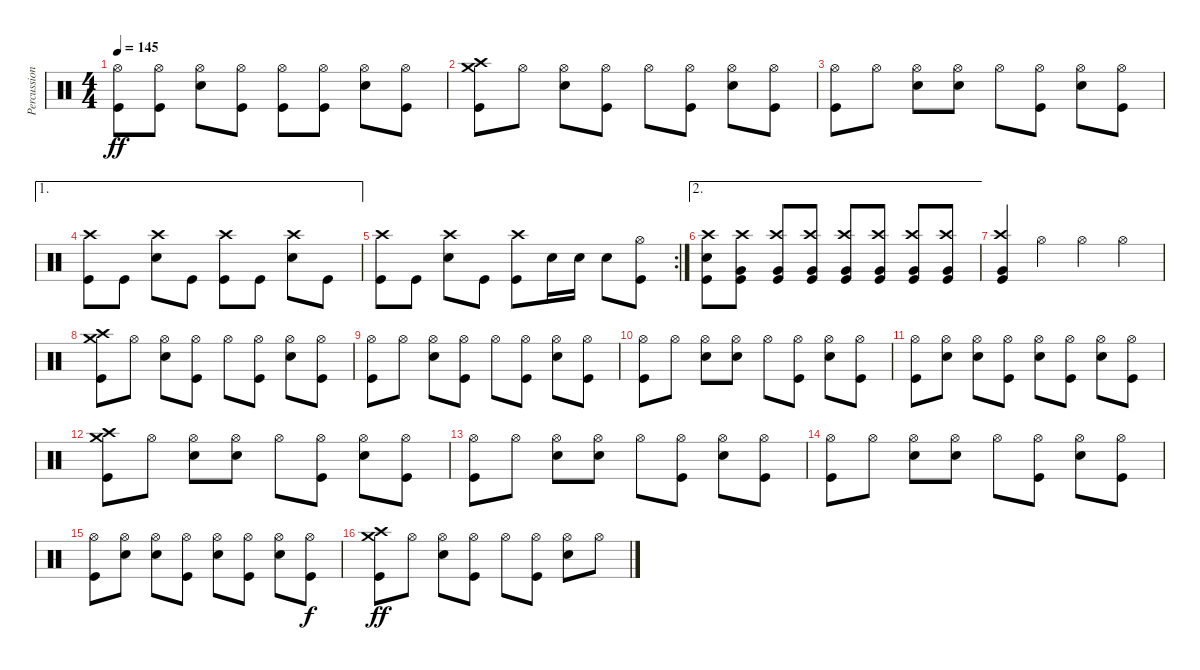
\track ("Percussion" "Percussion") {instrument percussion}
\staff {score}
\articulation defaults
\ts (4 4)
\tempo 145
\clef neutral
\ks c
("Hi-Hat (open)" "Kick (hit)").8{dy ff} ("Hi-Hat (open)" "Kick (hit)").8 ("Hi-Hat (open)" "Electric Snare (hit)").8 ("Hi-Hat (open)" "Kick (hit)").8 ("Hi-Hat (open)" "Kick (hit)").8 ("Hi-Hat (open)" "Kick (hit)").8 ("Hi-Hat (open)" "Electric Snare (hit)").8 ("Hi-Hat (open)" "Kick (hit)").8 |
("Crash medium (hit)" "Crash high (hit)" "Kick (hit)").8 "Hi-Hat (open)".8 ("Hi-Hat (open)" "Electric Snare (hit)").8 ("Hi-Hat (open)" "Kick (hit)").8 "Hi-Hat (open)".8 ("Hi-Hat (open)" "Kick (hit)").8 ("Hi-Hat (open)" "Electric Snare (hit)").8 ("Hi-Hat (open)" "Kick (hit)").8 |
("Hi-Hat (open)" "Kick (hit)").8 "Hi-Hat (open)".8 ("Hi-Hat (open)" "Electric Snare (hit)").8 ("Hi-Hat (open)" "Electric Snare (hit)").8 "Hi-Hat (open)".8 ("Hi-Hat (open)" "Kick (hit)").8 ("Hi-Hat (open)" "Electric Snare (hit)").8 ("Hi-Hat (open)" "Kick (hit)").8 |
\ae 1
("Crash high (hit)" "Kick (hit)").8 "Kick (hit)".8 ("Crash high (hit)" "Electric Snare (hit)").8 "Kick (hit)".8 ("Crash high (hit)" "Kick (hit)").8 "Kick (hit)".8 ("Crash high (hit)" "Electric Snare (hit)").8 "Kick (hit)".8 |
\rc 2
("Crash high (hit)" "Kick (hit)").8 "Kick (hit)".8 ("Crash high (hit)" "Electric Snare (hit)").8 "Kick (hit)".8 ("Crash high (hit)" "Kick (hit)").8 "Electric Snare (hit)".16 "Electric Snare (hit)".16 "Electric Snare (hit)".8 ("Hi-Hat (open)" "Kick (hit)").8 |
\ae 2
("Crash high (hit)" "Electric Snare (hit)" "Kick (hit)").8 ("Crash high (hit)" "Very Low Tom (hit)" "Kick (hit)").8 ("Crash high (hit)" "Very Low Tom (hit)" "Kick (hit)").8 ("Crash high (hit)" "Very Low Tom (hit)" "Kick (hit)").8 ("Crash high (hit)" "Very Low Tom (hit)" "Kick (hit)").8 ("Crash high (hit)" "Very Low Tom (hit)" "Kick (hit)").8 ("Crash high (hit)" "Very Low Tom (hit)" "Kick (hit)").8 ("Crash high (hit)" "Very Low Tom (hit)" "Kick (hit)").8 |
("Crash high (hit)" "Very Low Tom (hit)" "Kick (hit)").4 "Hi-Hat (open)".4 "Hi-Hat (open)".4 "Hi-Hat (open)".4 |
("Crash high (hit)" "Crash medium (hit)" "Kick (hit)").8 "Hi-Hat (open)".8 ("Hi-Hat (open)" "Electric Snare (hit)").8 ("Hi-Hat (open)" "Kick (hit)").8 "Hi-Hat (open)".8 ("Hi-Hat (open)" "Kick (hit)").8 ("Hi-Hat (open)" "Electric Snare (hit)").8 ("Hi-Hat (open)" "Kick (hit)").8 |
("Hi-Hat (open)" "Kick (hit)").8 "Hi-Hat (open)".8 ("Hi-Hat (open)" "Electric Snare (hit)").8 ("Hi-Hat (open)" "Kick (hit)").8 "Hi-Hat (open)".8 ("Hi-Hat (open)" "Kick (hit)").8 ("Hi-Hat (open)" "Electric Snare (hit)").8 ("Hi-Hat (open)" "Kick (hit)").8 |
("Hi-Hat (open)" "Kick (hit)").8 "Hi-Hat (open)".8 ("Hi-Hat (open)" "Electric Snare (hit)").8 ("Hi-Hat (open)" "Electric Snare (hit)").8 "Hi-Hat (open)".8 ("Hi-Hat (open)" "Kick (hit)").8 ("Hi-Hat (open)" "Electric Snare (hit)").8 ("Hi-Hat (open)" "Kick (hit)").8 |
("Hi-Hat (open)" "Kick (hit)").8 ("Hi-Hat (open)" "Electric Snare (hit)").8 ("Hi-Hat (open)" "Electric Snare (hit)").8 ("Hi-Hat (open)" "Kick (hit)").8 ("Hi-Hat (open)" "Electric Snare (hit)").8 ("Hi-Hat (open)" "Kick (hit)").8 ("Hi-Hat (open)" "Electric Snare (hit)").8 ("Hi-Hat (open)" "Kick (hit)").8 |
("Crash high (hit)" "Crash medium (hit)" "Kick (hit)").8 "Hi-Hat (open)".8 ("Hi-Hat (open)" "Electric Snare (hit)").8 ("Hi-Hat (open)" "Electric Snare (hit)").8 "Hi-Hat (open)".8 ("Hi-Hat (open)" "Kick (hit)").8 ("Hi-Hat (open)" "Electric Snare (hit)").8 ("Hi-Hat (open)" "Kick (hit)").8 |
("Hi-Hat (open)" "Kick (hit)").8 "Hi-Hat (open)".8 ("Hi-Hat (open)" "Electric Snare (hit)").8 ("Hi-Hat (open)" "Electric Snare (hit)").8 "Hi-Hat (open)".8 ("Hi-Hat (open)" "Kick (hit)").8 ("Hi-Hat (open)" "Electric Snare (hit)").8 ("Hi-Hat (open)" "Kick (hit)").8 |
("Hi-Hat (open)" "Kick (hit)").8 "Hi-Hat (open)".8 ("Hi-Hat (open)" "Electric Snare (hit)").8 ("Hi-Hat (open)" "Electric Snare (hit)").8 "Hi-Hat (open)".8 ("Hi-Hat (open)" "Kick (hit)").8 ("Hi-Hat (open)" "Electric Snare (hit)").8 ("Hi-Hat (open)" "Kick (hit)").8 |
("Hi-Hat (open)" "Kick (hit)").8 ("Hi-Hat (open)" "Electric Snare (hit)").8 ("Hi-Hat (open)" "Electric Snare (hit)").8 ("Hi-Hat (open)" "Kick (hit)").8 ("Hi-Hat (open)" "Electric Snare (hit)").8 ("Hi-Hat (open)" "Kick (hit)").8 ("Hi-Hat (open)" "Electric Snare (hit)").8 ("Hi-Hat (open)" "Kick (hit)").8{dy f} |
("Crash high (hit)" "Crash medium (hit)" "Kick (hit)").8{dy ff} "Hi-Hat (open)".8 ("Hi-Hat (open)" "Electric Snare (hit)").8 ("Hi-Hat (open)" "Kick (hit)").8 "Hi-Hat (open)".8 ("Hi-Hat (open)" "Kick (hit)").8 ("Hi-Hat (open)" "Electric Snare (hit)").8 "Hi-Hat (open)".8
